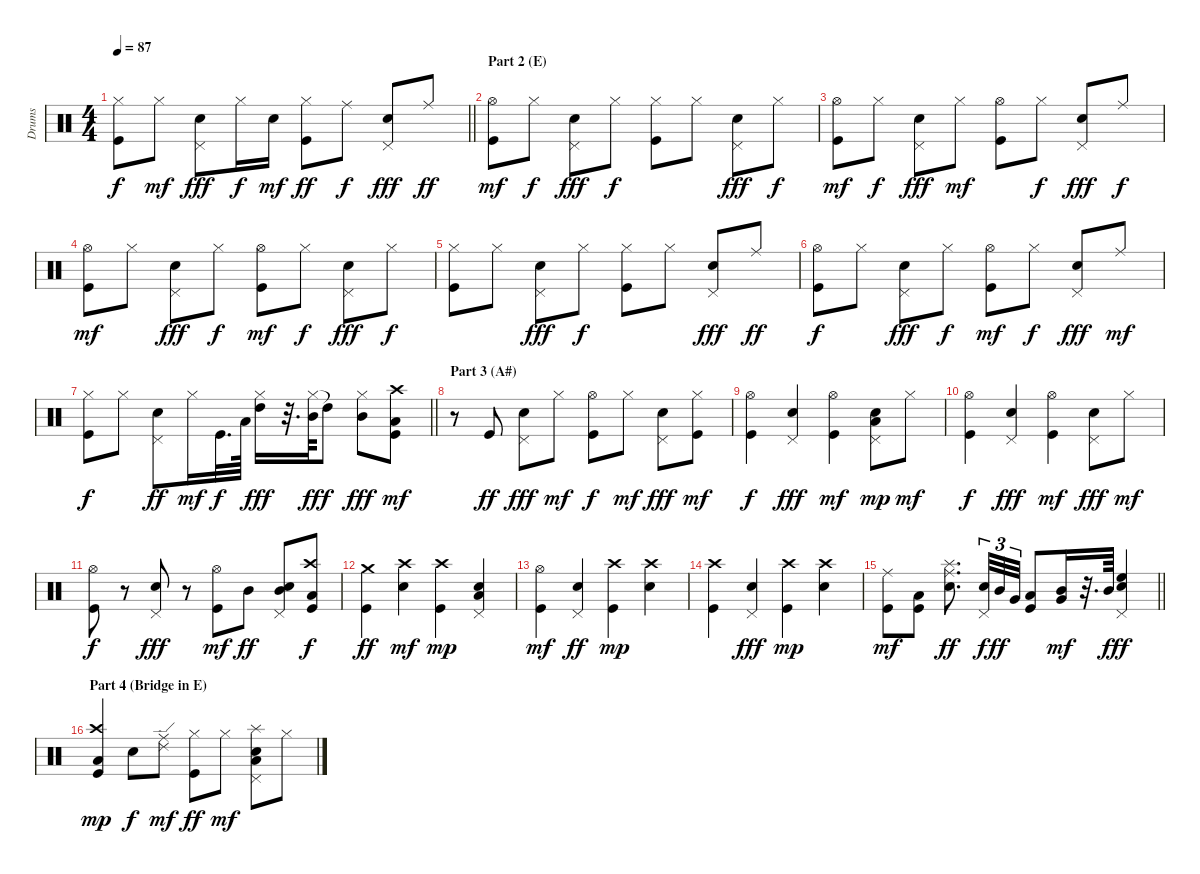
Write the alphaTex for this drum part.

\track ("Drums" "Drums") {instrument percussion}
\staff {score}
\articulation defaults
\ts (4 4)
\tempo 87
\clef neutral
\barLineRight lightlight
\ks c
("Hi-Hat (closed)" "Kick (hit)").8{dy f} "Hi-Hat (closed)".8{dy mf} ("Pedal Hi-Hat (hit)" "Snare (hit) 2").8{dy fff} "Hi-Hat (closed)".16{dy f} "Snare (hit) 2".16{dy mf} ("Hi-Hat (closed)" "Kick (hit)").8{dy ff} "Ride (middle)".8{dy f} ("Pedal Hi-Hat (hit)" "Snare (hit) 2").8{dy fff} "Ride (middle)".8{dy ff} |
\section ("" "Part 2 (E)")
("Hi-Hat (open)" "Kick (hit)").8{dy mf} "Hi-Hat (closed)".8{dy f} ("Pedal Hi-Hat (hit)" "Snare (hit) 2").8{dy fff} "Hi-Hat (closed)".8{dy f} ("Hi-Hat (closed)" "Kick (hit)").8 "Hi-Hat (closed)".8 ("Pedal Hi-Hat (hit)" "Snare (hit) 2").8{dy fff} "Hi-Hat (closed)".8{dy f} |
("Hi-Hat (open)" "Kick (hit)").8{dy mf} "Hi-Hat (closed)".8{dy f} ("Pedal Hi-Hat (hit)" "Snare (hit) 2").8{dy fff} "Hi-Hat (closed)".8{dy mf} ("Hi-Hat (open)" "Kick (hit)").8 "Hi-Hat (closed)".8{dy f} ("Pedal Hi-Hat (hit)" "Snare (hit) 2").8{dy fff} "Ride (middle)".8{dy f} |
("Hi-Hat (open)" "Kick (hit)").8{dy mf} "Hi-Hat (closed)".8 ("Pedal Hi-Hat (hit)" "Snare (hit) 2").8{dy fff} "Hi-Hat (closed)".8{dy f} ("Hi-Hat (open)" "Kick (hit)").8{dy mf} "Hi-Hat (closed)".8{dy f} ("Pedal Hi-Hat (hit)" "Snare (hit) 2").8{dy fff} "Hi-Hat (closed)".8{dy f} |
("Hi-Hat (closed)" "Kick (hit)").8 "Hi-Hat (closed)".8 ("Pedal Hi-Hat (hit)" "Snare (hit) 2").8{dy fff} "Hi-Hat (closed)".8{dy f} ("Hi-Hat (closed)" "Kick (hit)").8 "Hi-Hat (closed)".8 ("Pedal Hi-Hat (hit)" "Snare (hit) 2").8{dy fff} "Ride (middle)".8{dy ff} |
("Hi-Hat (open)" "Kick (hit)").8{dy f} "Hi-Hat (closed)".8 ("Pedal Hi-Hat (hit)" "Snare (hit) 2").8{dy fff} "Hi-Hat (closed)".8{dy f} ("Hi-Hat (open)" "Kick (hit)").8{dy mf} "Hi-Hat (closed)".8{dy f} ("Pedal Hi-Hat (hit)" "Snare (hit) 2").8{dy fff} "Ride (middle)".8{dy mf} |
\barLineRight lightlight
("Hi-Hat (closed)" "Kick (hit)").8{dy f} "Hi-Hat (closed)".8 ("Pedal Hi-Hat (hit)" "Snare (hit) 2").8{dy ff} "Hi-Hat (closed)".16{dy mf} "Kick (hit)".32{d dy f} "Low Tom (hit)".64 ("Hi-Hat (closed)" "High Tom (hit)").16{dy fff} r.32{d} ("Hi-Hat (closed)" "Mid Tom (hit)").64{dy ff} "High Tom (hit)"{t}.8{dy f} ("Hi-Hat (closed)" "Mid Tom (hit)").8{dy fff} ("Crash high (hit)" "Kick (hit)" "Low Floor Tom (hit)").8{dy mf} |
\section ("" "Part 3 (A#)")
r.8 "Kick (hit)".8{dy ff} ("Pedal Hi-Hat (hit)" "Snare (hit) 2").8{dy fff} "Hi-Hat (closed)".8{dy mf} ("Hi-Hat (open)" "Kick (hit)").8{dy f} "Hi-Hat (closed)".8{dy mf} ("Pedal Hi-Hat (hit)" "Snare (hit) 2").8{dy fff} ("Hi-Hat (closed)" "Kick (hit)").8{dy mf} |
("Hi-Hat (open)" "Kick (hit)").4{dy f} ("Pedal Hi-Hat (hit)" "Snare (hit) 2").4{dy fff} ("Hi-Hat (open)" "Kick (hit)").4{dy mf} ("Pedal Hi-Hat (hit)" "Snare (hit) 2" "Low Tom (hit)").8{dy mp} "Hi-Hat (closed)".8{dy mf} |
("Hi-Hat (open)" "Kick (hit)").4{dy f} ("Pedal Hi-Hat (hit)" "Snare (hit) 2").4{dy fff} ("Hi-Hat (open)" "Kick (hit)").4{dy mf} ("Pedal Hi-Hat (hit)" "Snare (hit) 2").8{dy fff} "Hi-Hat (closed)".8{dy mf} |
("Hi-Hat (open)" "Kick (hit)").8{dy f} r.8 ("Pedal Hi-Hat (hit)" "Snare (hit) 2").8{dy fff} r.8 ("Hi-Hat (open)" "Kick (hit)").8{dy mf} "Mid Tom (hit)".8{dy ff} ("Pedal Hi-Hat (hit)" "Snare (hit) 2" "Mid Tom (hit)").8 ("Crash high (hit)" "Kick (hit)" "Low Floor Tom (hit)").8{dy f} |
("Crash medium (hit)" "Kick (hit)").4{dy ff} ("Crash high (hit)" "Snare (hit) 2").4{dy mf} ("Crash high (hit)" "Kick (hit)").4{dy mp} ("Pedal Hi-Hat (hit)" "Snare (hit) 2" "Low Tom (hit)").4 |
("Hi-Hat (open)" "Kick (hit)").4{dy mf} ("Pedal Hi-Hat (hit)" "Snare (hit) 2").4{dy ff} ("Crash high (hit)" "Kick (hit)").4{dy mp} ("Crash high (hit)" "Snare (hit) 2").4 |
("Crash high (hit)" "Kick (hit)").4 ("Pedal Hi-Hat (hit)" "Snare (hit) 2").4{dy fff} ("Crash high (hit)" "Kick (hit)").4{dy mp} ("Crash high (hit)" "Snare (hit) 2").4 |
\barLineRight lightlight
("Ride (middle)" "Kick (hit)").8{dy mf} ("Kick (hit)" "Low Floor Tom (hit)").8 ("Splash (hit)" "Ride (middle)" "Snare (hit) 2").8{d dy ff} ("Pedal Hi-Hat (hit)" "Snare (hit) 2").32{tu (3 2) dy f} "Mid Tom (hit)".32{tu (3 2) dy ff} "Very Low Tom (hit)".32{tu (3 2)} ("Low Floor Tom (hit)" "Kick (hit)").8 ("Mid Tom (hit)" "Very Low Tom (hit)").16{dy mf} r.32{d} "Mid Tom (hit)".64{dy f} ("Pedal Hi-Hat (hit)" "Snare (hit) 2" "High Floor Tom (hit)").4{dy ff} |
\section ("" "Part 4 (Bridge in E)")
("Crash high (hit)" "Kick (hit)" "Low Floor Tom (hit)").4{dy mp} "Snare (hit) 2".8{dy f} ("Ride (middle)" "Ride (edge) 2").8{dy mf} ("Hi-Hat (closed)" "Kick (hit)").8{dy ff} "Hi-Hat (closed)".8{dy mf} ("Splash (hit)" "Pedal Hi-Hat (hit)" "Snare (hit) 2" "Low Tom (hit)").8 "Hi-Hat (closed)".8
